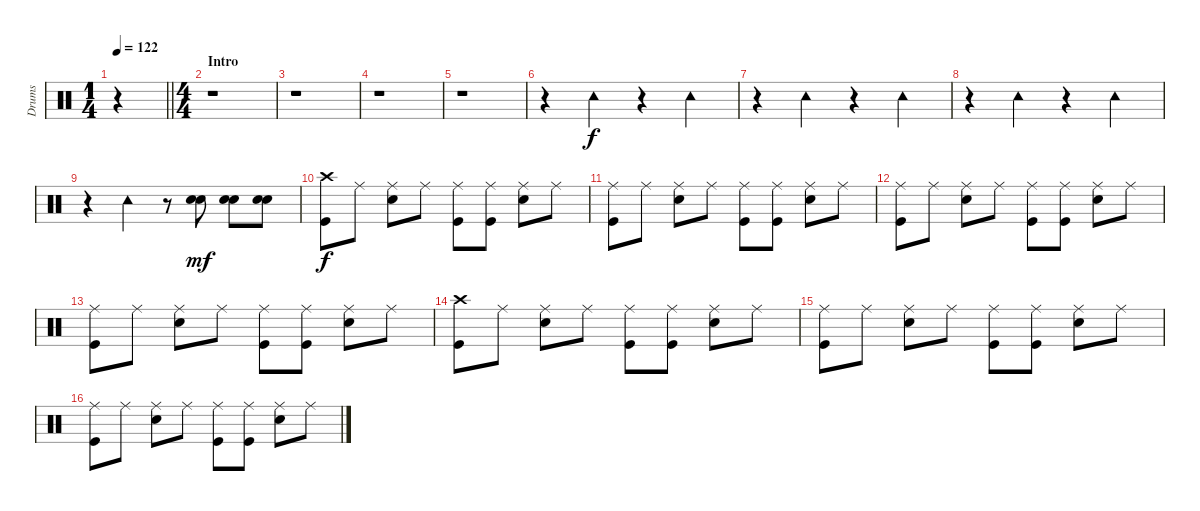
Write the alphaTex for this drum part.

\track ("Drums" "Drums") {instrument percussion}
\staff {score}
\articulation defaults
\ts (1 4)
\tempo 122
\clef neutral
\barLineRight lightlight
\ks c
r.4{dy f} |
\ts (4 4)
\section ("" "Intro")
r.1 |
r.1 |
r.1 |
r.1 |
r.4 "Tambourine (hit)".4 r.4 "Tambourine (hit)".4 |
r.4 "Tambourine (hit)".4 r.4 "Tambourine (hit)".4 |
r.4 "Tambourine (hit)".4 r.4 "Tambourine (hit)".4 |
r.4 "Tambourine (hit)".4 r.8 ("Electric Snare (hit)" "Snare (hit) 2").8{dy mf} ("Electric Snare (hit)" "Snare (hit) 2").8 ("Electric Snare (hit)" "Snare (hit) 2").8 |
("Crash high (hit)" "Kick (hit)").8{dy f} "Ride (middle)".8 ("Ride (middle)" "Electric Snare (hit)").8 "Ride (middle)".8 ("Ride (middle)" "Kick (hit)").8 ("Ride (middle)" "Kick (hit)").8 ("Ride (middle)" "Electric Snare (hit)").8 "Ride (middle)".8 |
("Ride (middle)" "Kick (hit)").8 "Ride (middle)".8 ("Ride (middle)" "Electric Snare (hit)").8 "Ride (middle)".8 ("Ride (middle)" "Kick (hit)").8 ("Ride (middle)" "Kick (hit)").8 ("Ride (middle)" "Electric Snare (hit)").8 "Ride (middle)".8 |
("Ride (middle)" "Kick (hit)").8 "Ride (middle)".8 ("Ride (middle)" "Electric Snare (hit)").8 "Ride (middle)".8 ("Ride (middle)" "Kick (hit)").8 ("Ride (middle)" "Kick (hit)").8 ("Ride (middle)" "Electric Snare (hit)").8 "Ride (middle)".8 |
("Ride (middle)" "Kick (hit)").8 "Ride (middle)".8 ("Ride (middle)" "Electric Snare (hit)").8 "Ride (middle)".8 ("Ride (middle)" "Kick (hit)").8 ("Ride (middle)" "Kick (hit)").8 ("Ride (middle)" "Electric Snare (hit)").8 "Ride (middle)".8 |
("Crash high (hit)" "Kick (hit)").8 "Ride (middle)".8 ("Ride (middle)" "Electric Snare (hit)").8 "Ride (middle)".8 ("Ride (middle)" "Kick (hit)").8 ("Ride (middle)" "Kick (hit)").8 ("Ride (middle)" "Electric Snare (hit)").8 "Ride (middle)".8 |
("Ride (middle)" "Kick (hit)").8 "Ride (middle)".8 ("Ride (middle)" "Electric Snare (hit)").8 "Ride (middle)".8 ("Ride (middle)" "Kick (hit)").8 ("Ride (middle)" "Kick (hit)").8 ("Ride (middle)" "Electric Snare (hit)").8 "Ride (middle)".8 |
("Ride (middle)" "Kick (hit)").8 "Ride (middle)".8 ("Ride (middle)" "Electric Snare (hit)").8 "Ride (middle)".8 ("Ride (middle)" "Kick (hit)").8 ("Ride (middle)" "Kick (hit)").8 ("Ride (middle)" "Electric Snare (hit)").8 "Ride (middle)".8
